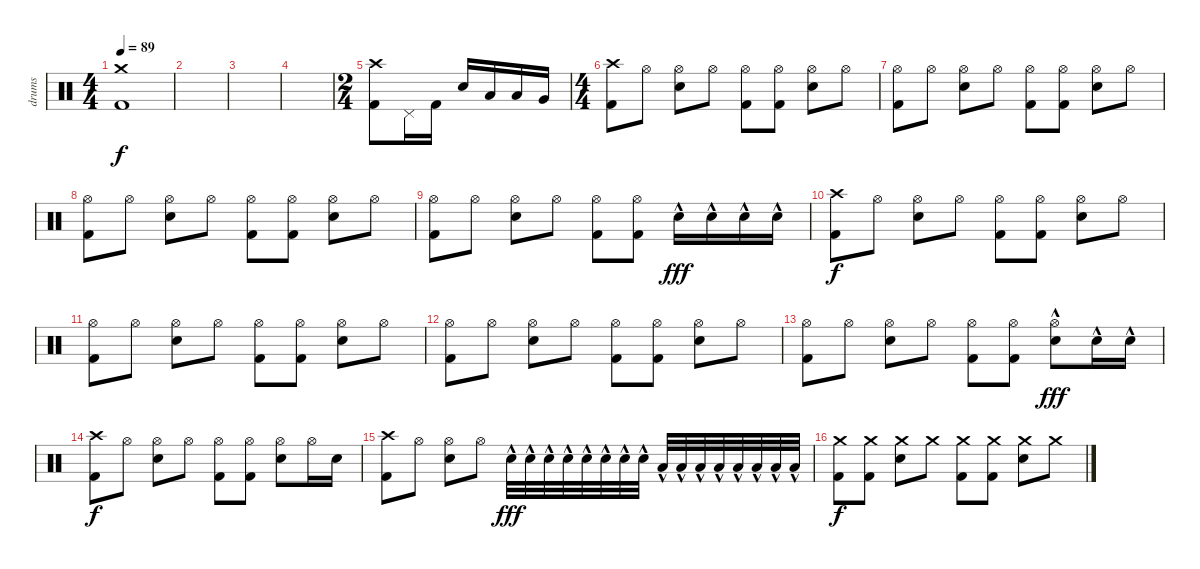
\track ("drums" "drums") {instrument percussion}
\staff {score}
\articulation defaults
\ts (4 4)
\tempo 89
\clef neutral
\ks c
("Crash medium (hit)" "Kick (hit) 2").1{dy f} |
|
|
|
\ts (2 4)
("Crash high (hit)" "Kick (hit) 2").8 "Pedal Hi-Hat (hit)".16 "Kick (hit) 2".16 "Electric Snare (hit)".16 "Low Floor Tom (hit)".16 "Low Floor Tom (hit)".16 "Very Low Tom (hit)".16 |
\ts (4 4)
("Crash high (hit)" "Kick (hit) 2").8 "Hi-Hat (open)".8 ("Electric Snare (hit)" "Hi-Hat (open)").8 "Hi-Hat (open)".8 ("Kick (hit) 2" "Hi-Hat (open)").8 ("Kick (hit) 2" "Hi-Hat (open)").8 ("Electric Snare (hit)" "Hi-Hat (open)").8 "Hi-Hat (open)".8 |
("Kick (hit) 2" "Hi-Hat (open)").8 "Hi-Hat (open)".8 ("Electric Snare (hit)" "Hi-Hat (open)").8 "Hi-Hat (open)".8 ("Kick (hit) 2" "Hi-Hat (open)").8 ("Kick (hit) 2" "Hi-Hat (open)").8 ("Electric Snare (hit)" "Hi-Hat (open)").8 "Hi-Hat (open)".8 |
("Kick (hit) 2" "Hi-Hat (open)").8 "Hi-Hat (open)".8 ("Electric Snare (hit)" "Hi-Hat (open)").8 "Hi-Hat (open)".8 ("Kick (hit) 2" "Hi-Hat (open)").8 ("Kick (hit) 2" "Hi-Hat (open)").8 ("Electric Snare (hit)" "Hi-Hat (open)").8 "Hi-Hat (open)".8 |
("Kick (hit) 2" "Hi-Hat (open)").8 "Hi-Hat (open)".8 ("Electric Snare (hit)" "Hi-Hat (open)").8 "Hi-Hat (open)".8 ("Kick (hit) 2" "Hi-Hat (open)").8 ("Kick (hit) 2" "Hi-Hat (open)").8 "Electric Snare (hit)"{hac}.16{dy fff} "Electric Snare (hit)"{hac}.16 "Electric Snare (hit)"{hac}.16 "Electric Snare (hit)"{hac}.16 |
("Crash high (hit)" "Kick (hit) 2").8{dy f} "Hi-Hat (open)".8 ("Electric Snare (hit)" "Hi-Hat (open)").8 "Hi-Hat (open)".8 ("Kick (hit) 2" "Hi-Hat (open)").8 ("Kick (hit) 2" "Hi-Hat (open)").8 ("Electric Snare (hit)" "Hi-Hat (open)").8 "Hi-Hat (open)".8 |
("Kick (hit) 2" "Hi-Hat (open)").8 "Hi-Hat (open)".8 ("Electric Snare (hit)" "Hi-Hat (open)").8 "Hi-Hat (open)".8 ("Kick (hit) 2" "Hi-Hat (open)").8 ("Kick (hit) 2" "Hi-Hat (open)").8 ("Electric Snare (hit)" "Hi-Hat (open)").8 "Hi-Hat (open)".8 |
("Kick (hit) 2" "Hi-Hat (open)").8 "Hi-Hat (open)".8 ("Electric Snare (hit)" "Hi-Hat (open)").8 "Hi-Hat (open)".8 ("Kick (hit) 2" "Hi-Hat (open)").8 ("Kick (hit) 2" "Hi-Hat (open)").8 ("Electric Snare (hit)" "Hi-Hat (open)").8 "Hi-Hat (open)".8 |
("Kick (hit) 2" "Hi-Hat (open)").8 "Hi-Hat (open)".8 ("Electric Snare (hit)" "Hi-Hat (open)").8 "Hi-Hat (open)".8 ("Kick (hit) 2" "Hi-Hat (open)").8 ("Kick (hit) 2" "Hi-Hat (open)").8 ("Electric Snare (hit)"{hac} "Hi-Hat (open)").8{dy fff} "Electric Snare (hit)"{hac}.16 "Electric Snare (hit)"{hac}.16 |
("Crash high (hit)" "Kick (hit) 2").8{dy f} "Hi-Hat (open)".8 ("Electric Snare (hit)" "Hi-Hat (open)").8 "Hi-Hat (open)".8 ("Kick (hit) 2" "Hi-Hat (open)").8 ("Kick (hit) 2" "Hi-Hat (open)").8 ("Electric Snare (hit)" "Hi-Hat (open)").8 "Hi-Hat (open)".16 "Electric Snare (hit)".16 |
("Crash high (hit)" "Kick (hit) 2").8 "Hi-Hat (open)".8 ("Electric Snare (hit)" "Hi-Hat (open)").8 "Hi-Hat (open)".8 "Electric Snare (hit)"{hac}.32{dy fff} "Electric Snare (hit)"{hac}.32 "Electric Snare (hit)"{hac}.32 "Electric Snare (hit)"{hac}.32 "Electric Snare (hit)"{hac}.32 "Electric Snare (hit)"{hac}.32 "Electric Snare (hit)"{hac}.32 "Electric Snare (hit)"{hac}.32 "Low Floor Tom (hit)"{hac}.32 "Low Floor Tom (hit)"{hac}.32 "Low Floor Tom (hit)"{hac}.32 "Low Floor Tom (hit)"{hac}.32 "Low Floor Tom (hit)"{hac}.32 "Low Floor Tom (hit)"{hac}.32 "Low Floor Tom (hit)"{hac}.32 "Low Floor Tom (hit)"{hac}.32 |
("Crash medium (hit)" "Kick (hit) 2").8{dy f} ("Crash medium (hit)" "Kick (hit) 2").8 ("Crash medium (hit)" "Electric Snare (hit)").8 "Crash medium (hit)".8 ("Crash medium (hit)" "Kick (hit) 2").8 ("Crash medium (hit)" "Kick (hit) 2").8 ("Crash medium (hit)" "Electric Snare (hit)").8 "Crash medium (hit)".8
